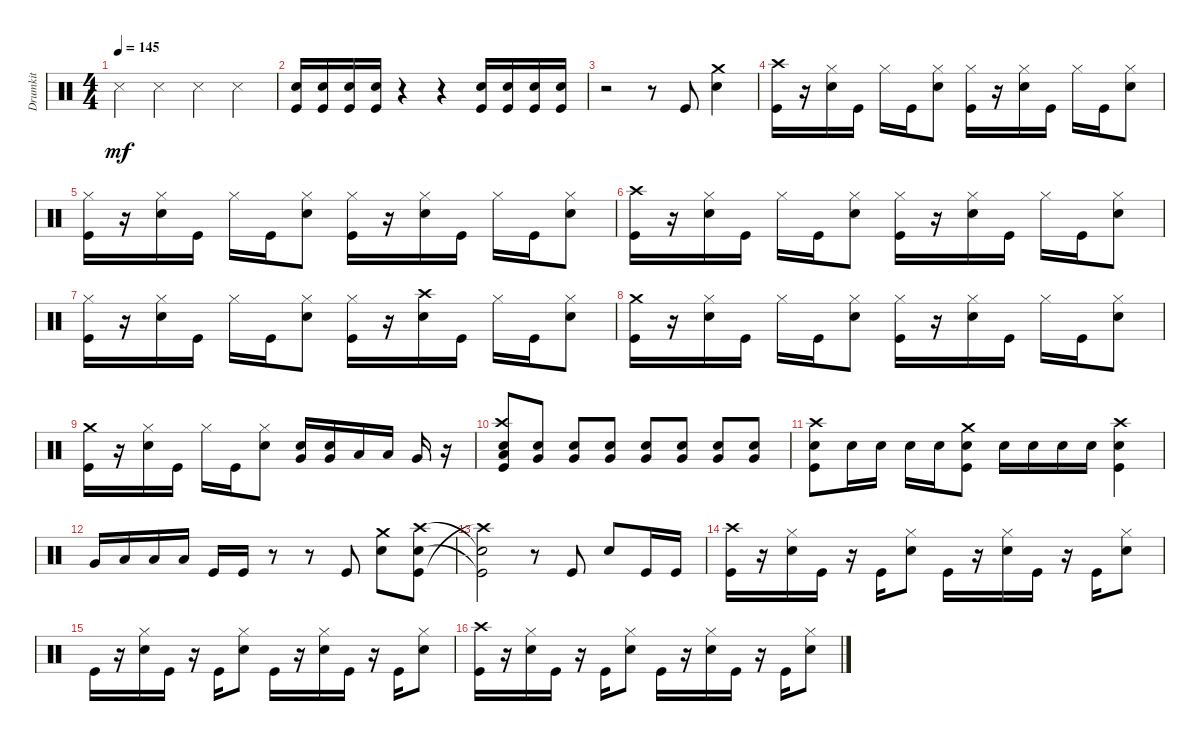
\track ("Drumkit" "Drumkit") {instrument percussion}
\staff {score}
\articulation defaults
\ts (4 4)
\tempo 145
\clef neutral
\ks c "Snare (side stick) 3".4{dy mf} "Snare (side stick) 3".4 "Snare (side stick) 3".4 "Snare (side stick) 3".4
|
("Snare (hit) 2" "Kick (hit)").16 ("Snare (hit) 2" "Kick (hit)").16 ("Snare (hit) 2" "Kick (hit)").16 ("Snare (hit) 2" "Kick (hit)").16 r.4 r.4 ("Snare (hit) 2" "Kick (hit)").16 ("Snare (hit) 2" "Kick (hit)").16 ("Snare (hit) 2" "Kick (hit)").16 ("Snare (hit) 2" "Kick (hit)").16 |
r.2 r.8 "Kick (hit)".8 ("Crash medium (hit)" "Snare (hit) 2").4 |
("Crash high (hit)" "Kick (hit)").16 r.16 ("Snare (hit) 2" "Hi-Hat (closed)").16 "Kick (hit)".16 "Hi-Hat (closed)".16 "Kick (hit)".16 ("Snare (hit) 2" "Hi-Hat (closed)").8 ("Kick (hit)" "Hi-Hat (closed)").16 r.16 ("Snare (hit) 2" "Hi-Hat (closed)").16 "Kick (hit)".16 "Hi-Hat (closed)".16 "Kick (hit)".16 ("Snare (hit) 2" "Hi-Hat (closed)").8 |
("Kick (hit)" "Hi-Hat (closed)").16 r.16 ("Snare (hit) 2" "Hi-Hat (closed)").16 "Kick (hit)".16 "Hi-Hat (closed)".16 "Kick (hit)".16 ("Snare (hit) 2" "Hi-Hat (closed)").8 ("Kick (hit)" "Hi-Hat (closed)").16 r.16 ("Snare (hit) 2" "Hi-Hat (closed)").16 "Kick (hit)".16 "Hi-Hat (closed)".16 "Kick (hit)".16 ("Snare (hit) 2" "Hi-Hat (closed)").8 |
("Crash high (hit)" "Kick (hit)").16 r.16 ("Snare (hit) 2" "Hi-Hat (closed)").16 "Kick (hit)".16 "Hi-Hat (closed)".16 "Kick (hit)".16 ("Snare (hit) 2" "Hi-Hat (closed)").8 ("Kick (hit)" "Hi-Hat (closed)").16 r.16 ("Snare (hit) 2" "Hi-Hat (closed)").16 "Kick (hit)".16 "Hi-Hat (closed)".16 "Kick (hit)".16 ("Snare (hit) 2" "Hi-Hat (closed)").8 |
("Kick (hit)" "Hi-Hat (closed)").16 r.16 ("Snare (hit) 2" "Hi-Hat (closed)").16 "Kick (hit)".16 "Hi-Hat (closed)".16 "Kick (hit)".16 ("Snare (hit) 2" "Hi-Hat (closed)").8 ("Kick (hit)" "Hi-Hat (closed)").16 r.16 ("Snare (hit) 2" "Crash high (hit)").16 "Kick (hit)".16 "Hi-Hat (closed)".16 "Kick (hit)".16 ("Snare (hit) 2" "Hi-Hat (closed)").8 |
("Kick (hit)" "Crash medium (hit)").16 r.16 ("Snare (hit) 2" "Hi-Hat (closed)").16 "Kick (hit)".16 "Hi-Hat (closed)".16 "Kick (hit)".16 ("Snare (hit) 2" "Hi-Hat (closed)").8 ("Kick (hit)" "Hi-Hat (closed)").16 r.16 ("Snare (hit) 2" "Hi-Hat (closed)").16 "Kick (hit)".16 "Hi-Hat (closed)".16 "Kick (hit)".16 ("Snare (hit) 2" "Hi-Hat (closed)").8 |
("Kick (hit)" "Crash medium (hit)").16 r.16 ("Snare (hit) 2" "Hi-Hat (closed)").16 "Kick (hit)".16 "Hi-Hat (closed)".16 "Kick (hit)".16 ("Snare (hit) 2" "Hi-Hat (closed)").8 ("Very Low Tom (hit)" "Snare (hit) 2").16 ("Very Low Tom (hit)" "Snare (hit) 2").16 "Low Tom (hit)".16 "Low Floor Tom (hit)".16 "Very Low Tom (hit)".16 r.16 |
("Kick (hit)" "Snare (hit) 2" "Crash high (hit)" "Low Floor Tom (hit)").8 ("Snare (hit) 2" "Very Low Tom (hit)").8 ("Snare (hit) 2" "Very Low Tom (hit)").8 ("Snare (hit) 2" "Very Low Tom (hit)").8 ("Snare (hit) 2" "Very Low Tom (hit)").8 ("Snare (hit) 2" "Very Low Tom (hit)").8 ("Snare (hit) 2" "Very Low Tom (hit)").8 ("Snare (hit) 2" "Very Low Tom (hit)").8 |
("Crash high (hit)" "Snare (hit) 2" "Kick (hit)").8 "Snare (hit) 2".16 "Snare (hit) 2".16 "Snare (hit) 2".16 "Snare (hit) 2".16 ("Crash medium (hit)" "Snare (hit) 2" "Kick (hit)").8 "Snare (hit) 2".16 "Snare (hit) 2".16 "Snare (hit) 2".16 "Snare (hit) 2".16 ("Crash high (hit)" "Snare (hit) 2" "Kick (hit)").4 |
"Very Low Tom (hit)".16 "Low Floor Tom (hit)".16 "Low Floor Tom (hit)".16 "Low Floor Tom (hit)".16 "Kick (hit)".16 "Kick (hit)".16 r.8 r.8 "Kick (hit)".8 ("Crash medium (hit)" "Snare (hit) 2").8 ("Crash high (hit)" "Snare (hit) 2" "Kick (hit)").8 |
("Snare (hit) 2"{t} "Kick (hit)"{t} "Crash high (hit)"{t}).2 r.8 "Kick (hit)".8 "Snare (hit) 2".8 "Kick (hit)".16 "Kick (hit)".16 |
("Crash high (hit)" "Kick (hit)").16 r.16 ("Snare (hit) 2" "Hi-Hat (closed)").16 "Kick (hit)".16 r.16 "Kick (hit)".16 ("Snare (hit) 2" "Hi-Hat (closed)").8 "Kick (hit)".16 r.16 ("Snare (hit) 2" "Hi-Hat (closed)").16 "Kick (hit)".16 r.16 "Kick (hit)".16 ("Snare (hit) 2" "Hi-Hat (closed)").8 |
"Kick (hit)".16 r.16 ("Snare (hit) 2" "Hi-Hat (closed)").16 "Kick (hit)".16 r.16 "Kick (hit)".16 ("Snare (hit) 2" "Hi-Hat (closed)").8 "Kick (hit)".16 r.16 ("Snare (hit) 2" "Hi-Hat (closed)").16 "Kick (hit)".16 r.16 "Kick (hit)".16 ("Snare (hit) 2" "Hi-Hat (closed)").8 |
("Crash high (hit)" "Kick (hit)").16 r.16 ("Snare (hit) 2" "Hi-Hat (closed)").16 "Kick (hit)".16 r.16 "Kick (hit)".16 ("Snare (hit) 2" "Hi-Hat (closed)").8 "Kick (hit)".16 r.16 ("Snare (hit) 2" "Hi-Hat (closed)").16 "Kick (hit)".16 r.16 "Kick (hit)".16 ("Snare (hit) 2" "Hi-Hat (closed)").8
